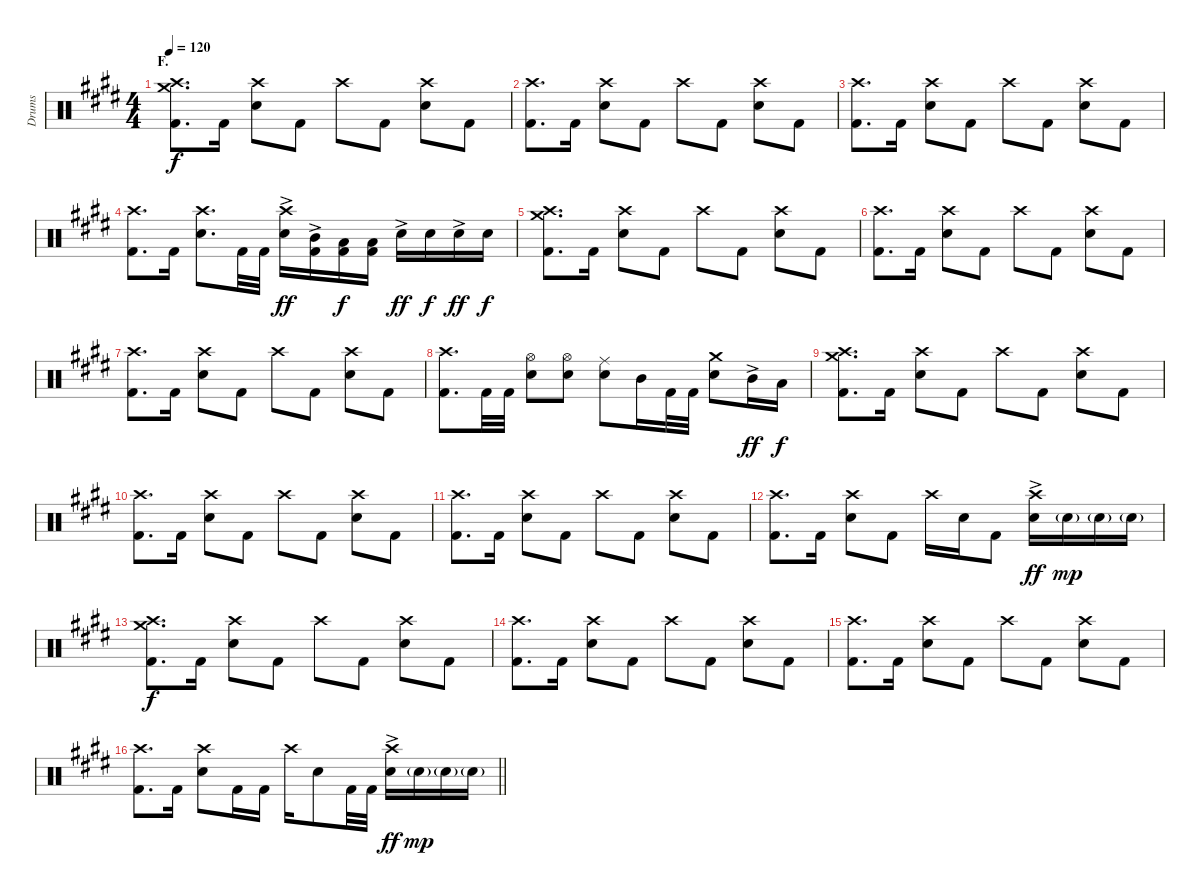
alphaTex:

\track ("Drums" "Drums") {instrument percussion}
\staff {score}
\articulation defaults
\ts (4 4)
\section ("" "F.")
\tempo 120
\clef neutral
\ks e
("Crash medium (hit)" "Crash high (hit)" "Kick (hit) 2").8{d dy f} "Kick (hit) 2".16 ("Crash high (hit)" "Electric Snare (hit)").8 "Kick (hit) 2".8 "Crash high (hit)".8 "Kick (hit) 2".8 ("Crash high (hit)" "Electric Snare (hit)").8 "Kick (hit) 2".8 |
("Crash high (hit)" "Kick (hit) 2").8{d} "Kick (hit) 2".16 ("Crash high (hit)" "Electric Snare (hit)").8 "Kick (hit) 2".8 "Crash high (hit)".8 "Kick (hit) 2".8 ("Crash high (hit)" "Electric Snare (hit)").8 "Kick (hit) 2".8 |
("Crash high (hit)" "Kick (hit) 2").8{d} "Kick (hit) 2".16 ("Crash high (hit)" "Electric Snare (hit)").8 "Kick (hit) 2".8 "Crash high (hit)".8 "Kick (hit) 2".8 ("Crash high (hit)" "Electric Snare (hit)").8 "Kick (hit) 2".8 |
("Crash high (hit)" "Kick (hit) 2").8{d} "Kick (hit) 2".16 ("Crash high (hit)" "Electric Snare (hit)").8{d} "Kick (hit) 2".32 "Kick (hit) 2".32 ("Crash high (hit)" "Electric Snare (hit)"{ac}).16{dy ff} ("Mid Tom (hit)"{ac} "Kick (hit) 2").16 ("Low Tom (hit)" "Kick (hit) 2").16{dy f} ("Low Tom (hit)" "Kick (hit) 2").16 "Electric Snare (hit)"{ac}.16{dy ff} "Electric Snare (hit)".16{dy f} "Electric Snare (hit)"{ac}.16{dy ff} "Electric Snare (hit)".16{dy f} |
("Crash medium (hit)" "Crash high (hit)" "Kick (hit) 2").8{d} "Kick (hit) 2".16 ("Crash high (hit)" "Electric Snare (hit)").8 "Kick (hit) 2".8 "Crash high (hit)".8 "Kick (hit) 2".8 ("Crash high (hit)" "Electric Snare (hit)").8 "Kick (hit) 2".8 |
("Crash high (hit)" "Kick (hit) 2").8{d} "Kick (hit) 2".16 ("Crash high (hit)" "Electric Snare (hit)").8 "Kick (hit) 2".8 "Crash high (hit)".8 "Kick (hit) 2".8 ("Crash high (hit)" "Electric Snare (hit)").8 "Kick (hit) 2".8 |
("Crash high (hit)" "Kick (hit) 2").8{d} "Kick (hit) 2".16 ("Crash high (hit)" "Electric Snare (hit)").8 "Kick (hit) 2".8 "Crash high (hit)".8 "Kick (hit) 2".8 ("Crash high (hit)" "Electric Snare (hit)").8 "Kick (hit) 2".8 |
("Crash high (hit)" "Kick (hit) 2").8{d} "Kick (hit) 2".32 "Kick (hit) 2".32 ("Hi-Hat (open)" "Electric Snare (hit)").8 ("Hi-Hat (open)" "Electric Snare (hit)").8 ("Ride (middle)" "Electric Snare (hit)").8 "Mid Tom (hit)".16 "Kick (hit) 2".32 "Kick (hit) 2".32 ("Crash medium (hit)" "Electric Snare (hit)").8 "Mid Tom (hit)"{ac}.16{dy ff} "Low Tom (hit)".16{dy f} |
("Crash medium (hit)" "Crash high (hit)" "Kick (hit) 2").8{d} "Kick (hit) 2".16 ("Crash high (hit)" "Electric Snare (hit)").8 "Kick (hit) 2".8 "Crash high (hit)".8 "Kick (hit) 2".8 ("Crash high (hit)" "Electric Snare (hit)").8 "Kick (hit) 2".8 |
("Crash high (hit)" "Kick (hit) 2").8{d} "Kick (hit) 2".16 ("Crash high (hit)" "Electric Snare (hit)").8 "Kick (hit) 2".8 "Crash high (hit)".8 "Kick (hit) 2".8 ("Crash high (hit)" "Electric Snare (hit)").8 "Kick (hit) 2".8 |
("Crash high (hit)" "Kick (hit) 2").8{d} "Kick (hit) 2".16 ("Crash high (hit)" "Electric Snare (hit)").8 "Kick (hit) 2".8 "Crash high (hit)".8 "Kick (hit) 2".8 ("Crash high (hit)" "Electric Snare (hit)").8 "Kick (hit) 2".8 |
("Crash high (hit)" "Kick (hit) 2").8{d} "Kick (hit) 2".16 ("Crash high (hit)" "Electric Snare (hit)").8 "Kick (hit) 2".8 "Crash high (hit)".16 "Electric Snare (hit)".16 "Kick (hit) 2".8 ("Crash high (hit)" "Electric Snare (hit)"{ac}).16{dy ff} "Electric Snare (hit)"{g}.16{dy mp} "Electric Snare (hit)"{g}.16 "Electric Snare (hit)"{g}.16 |
("Crash medium (hit)" "Crash high (hit)" "Kick (hit) 2").8{d dy f} "Kick (hit) 2".16 ("Crash high (hit)" "Electric Snare (hit)").8 "Kick (hit) 2".8 "Crash high (hit)".8 "Kick (hit) 2".8 ("Crash high (hit)" "Electric Snare (hit)").8 "Kick (hit) 2".8 |
("Crash high (hit)" "Kick (hit) 2").8{d} "Kick (hit) 2".16 ("Crash high (hit)" "Electric Snare (hit)").8 "Kick (hit) 2".8 "Crash high (hit)".8 "Kick (hit) 2".8 ("Crash high (hit)" "Electric Snare (hit)").8 "Kick (hit) 2".8 |
("Crash high (hit)" "Kick (hit) 2").8{d} "Kick (hit) 2".16 ("Crash high (hit)" "Electric Snare (hit)").8 "Kick (hit) 2".8 "Crash high (hit)".8 "Kick (hit) 2".8 ("Crash high (hit)" "Electric Snare (hit)").8 "Kick (hit) 2".8 |
\barLineRight lightlight
("Crash high (hit)" "Kick (hit) 2").8{d} "Kick (hit) 2".16 ("Crash high (hit)" "Electric Snare (hit)").8 "Kick (hit) 2".16 "Kick (hit) 2".16 "Crash high (hit)".16 "Electric Snare (hit)".8 "Kick (hit) 2".32 "Kick (hit) 2".32 ("Crash high (hit)" "Electric Snare (hit)"{ac}).16{dy ff} "Electric Snare (hit)"{g}.16{dy mp} "Electric Snare (hit)"{g}.16 "Electric Snare (hit)"{g}.16
